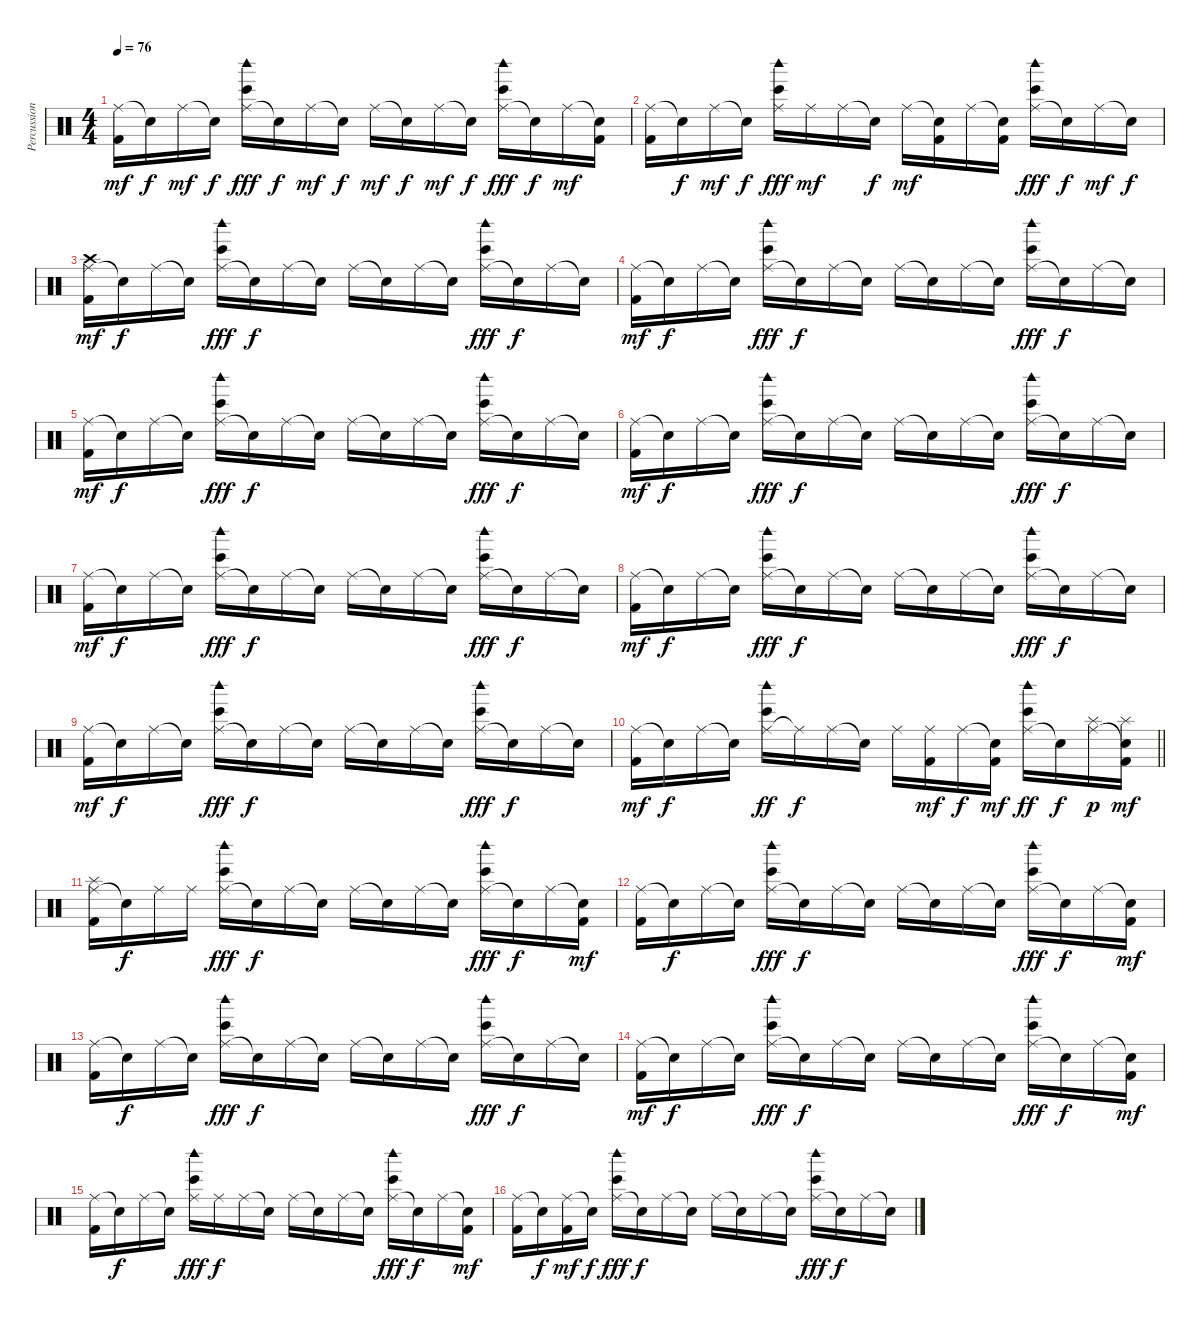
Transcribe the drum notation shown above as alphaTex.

\track ("Percussion" "Percussion") {instrument percussion}
\staff {score}
\articulation defaults
\ts (4 4)
\tempo 76
\clef neutral
\ks c
("Ride (middle)" "Kick (hit) 2").16{dy mf} "Snare (hit)"{t}.16{dy f} "Ride (middle)".16{dy mf} "Snare (hit)"{t}.16{dy f} ("Ride (middle)" "Woodblock high (hit)" "Bongo High (hit)").16{dy fff} "Snare (hit)"{t}.16{dy f} "Ride (middle)".16{dy mf} "Snare (hit)"{t}.16{dy f} "Ride (middle)".16{dy mf} "Snare (hit)"{t}.16{dy f} "Ride (middle)".16{dy mf} "Snare (hit)"{t}.16{dy f} ("Ride (middle)" "Woodblock high (hit)" "Bongo High (hit)").16{dy fff} "Snare (hit)"{t}.16{dy f} "Ride (middle)".16{dy mf} ("Snare (hit)"{t} "Kick (hit) 2").16 |
("Ride (middle)" "Kick (hit) 2").16 "Snare (hit)"{t}.16{dy f} "Ride (middle)".16{dy mf} "Snare (hit)"{t}.16{dy f} ("Ride (middle)" "Woodblock high (hit)" "Bongo High (hit)").16{dy fff} "Ride (middle)".16{dy mf} "Ride (middle)".16 "Snare (hit)"{t}.16{dy f} "Ride (middle)".16{dy mf} ("Snare (hit)"{t} "Kick (hit) 2").16 "Ride (middle)".16 ("Snare (hit)"{t} "Kick (hit) 2").16 ("Ride (middle)" "Woodblock high (hit)" "Bongo High (hit)").16{dy fff} "Snare (hit)"{t}.16{dy f} "Ride (middle)".16{dy mf} "Snare (hit)"{t}.16{dy f} |
("Ride (middle)" "Crash high (hit)" "Kick (hit) 2").16{dy mf} "Snare (hit)"{t}.16{dy f} "Ride (middle)".16 "Snare (hit)"{t}.16 ("Ride (middle)" "Woodblock high (hit)" "Bongo High (hit)").16{dy fff} "Snare (hit)"{t}.16{dy f} "Ride (middle)".16 "Snare (hit)"{t}.16 "Ride (middle)".16 "Snare (hit)"{t}.16 "Ride (middle)".16 "Snare (hit)"{t}.16 ("Ride (middle)" "Woodblock high (hit)" "Bongo High (hit)").16{dy fff} "Snare (hit)"{t}.16{dy f} "Ride (middle)".16 "Snare (hit)"{t}.16 |
("Ride (middle)" "Kick (hit) 2").16{dy mf} "Snare (hit)"{t}.16{dy f} "Ride (middle)".16 "Snare (hit)"{t}.16 ("Ride (middle)" "Woodblock high (hit)" "Bongo High (hit)").16{dy fff} "Snare (hit)"{t}.16{dy f} "Ride (middle)".16 "Snare (hit)"{t}.16 "Ride (middle)".16 "Snare (hit)"{t}.16 "Ride (middle)".16 "Snare (hit)"{t}.16 ("Ride (middle)" "Woodblock high (hit)" "Bongo High (hit)").16{dy fff} "Snare (hit)"{t}.16{dy f} "Ride (middle)".16 "Snare (hit)"{t}.16 |
("Ride (middle)" "Kick (hit) 2").16{dy mf} "Snare (hit)"{t}.16{dy f} "Ride (middle)".16 "Snare (hit)"{t}.16 ("Ride (middle)" "Woodblock high (hit)" "Bongo High (hit)").16{dy fff} "Snare (hit)"{t}.16{dy f} "Ride (middle)".16 "Snare (hit)"{t}.16 "Ride (middle)".16 "Snare (hit)"{t}.16 "Ride (middle)".16 "Snare (hit)"{t}.16 ("Ride (middle)" "Woodblock high (hit)" "Bongo High (hit)").16{dy fff} "Snare (hit)"{t}.16{dy f} "Ride (middle)".16 "Snare (hit)"{t}.16 |
("Ride (middle)" "Kick (hit) 2").16{dy mf} "Snare (hit)"{t}.16{dy f} "Ride (middle)".16 "Snare (hit)"{t}.16 ("Ride (middle)" "Woodblock high (hit)" "Bongo High (hit)").16{dy fff} "Snare (hit)"{t}.16{dy f} "Ride (middle)".16 "Snare (hit)"{t}.16 "Ride (middle)".16 "Snare (hit)"{t}.16 "Ride (middle)".16 "Snare (hit)"{t}.16 ("Ride (middle)" "Woodblock high (hit)" "Bongo High (hit)").16{dy fff} "Snare (hit)"{t}.16{dy f} "Ride (middle)".16 "Snare (hit)"{t}.16 |
("Ride (middle)" "Kick (hit) 2").16{dy mf} "Snare (hit)"{t}.16{dy f} "Ride (middle)".16 "Snare (hit)"{t}.16 ("Ride (middle)" "Woodblock high (hit)" "Bongo High (hit)").16{dy fff} "Snare (hit)"{t}.16{dy f} "Ride (middle)".16 "Snare (hit)"{t}.16 "Ride (middle)".16 "Snare (hit)"{t}.16 "Ride (middle)".16 "Snare (hit)"{t}.16 ("Ride (middle)" "Woodblock high (hit)" "Bongo High (hit)").16{dy fff} "Snare (hit)"{t}.16{dy f} "Ride (middle)".16 "Snare (hit)"{t}.16 |
("Ride (middle)" "Kick (hit) 2").16{dy mf} "Snare (hit)"{t}.16{dy f} "Ride (middle)".16 "Snare (hit)"{t}.16 ("Ride (middle)" "Woodblock high (hit)" "Bongo High (hit)").16{dy fff} "Snare (hit)"{t}.16{dy f} "Ride (middle)".16 "Snare (hit)"{t}.16 "Ride (middle)".16 "Snare (hit)"{t}.16 "Ride (middle)".16 "Snare (hit)"{t}.16 ("Ride (middle)" "Woodblock high (hit)" "Bongo High (hit)").16{dy fff} "Snare (hit)"{t}.16{dy f} "Ride (middle)".16 "Snare (hit)"{t}.16 |
("Ride (middle)" "Kick (hit) 2").16{dy mf} "Snare (hit)"{t}.16{dy f} "Ride (middle)".16 "Snare (hit)"{t}.16 ("Ride (middle)" "Woodblock high (hit)" "Bongo High (hit)").16{dy fff} "Snare (hit)"{t}.16{dy f} "Ride (middle)".16 "Snare (hit)"{t}.16 "Ride (middle)".16 "Snare (hit)"{t}.16 "Ride (middle)".16 "Snare (hit)"{t}.16 ("Ride (middle)" "Woodblock high (hit)" "Bongo High (hit)").16{dy fff} "Snare (hit)"{t}.16{dy f} "Ride (middle)".16 "Snare (hit)"{t}.16 |
\barLineRight lightlight
("Ride (middle)" "Kick (hit) 2").16{dy mf} "Snare (hit)"{t}.16{dy f} "Ride (middle)".16 "Snare (hit)"{t}.16 ("Ride (middle)" "Woodblock high (hit)" "Bongo High (hit)").16{dy ff} "Ride (middle)"{t}.16{dy f} "Ride (middle)".16 "Snare (hit)"{t}.16 "Ride (middle)".16 ("Ride (middle)" "Kick (hit) 2").16{dy mf} "Ride (middle)".16{dy f} ("Snare (hit)"{t} "Kick (hit) 2").16{dy mf} ("Ride (middle)" "Woodblock high (hit)" "Bongo High (hit)").16{dy ff} "Snare (hit)"{t}.16{dy f} ("Ride (middle)" "Splash (hit)").16{dy p} ("Snare (hit)"{t} "Splash (hit)" "Kick (hit) 2").16{dy mf} |
("Ride (middle)" "Splash (hit)" "Kick (hit) 2").16 "Snare (hit)"{t}.16{dy f} "Ride (middle)".16 "Ride (middle)".16 ("Ride (middle)" "Woodblock high (hit)" "Bongo High (hit)").16{dy fff} "Snare (hit)"{t}.16{dy f} "Ride (middle)".16 "Snare (hit)"{t}.16 "Ride (middle)".16 "Snare (hit)"{t}.16 "Ride (middle)".16 "Snare (hit)"{t}.16 ("Ride (middle)" "Woodblock high (hit)" "Bongo High (hit)").16{dy fff} "Snare (hit)"{t}.16{dy f} "Ride (middle)".16 ("Snare (hit)"{t} "Kick (hit) 2").16{dy mf} |
("Ride (middle)" "Kick (hit) 2").16 "Snare (hit)"{t}.16{dy f} "Ride (middle)".16 "Snare (hit)"{t}.16 ("Ride (middle)" "Woodblock high (hit)" "Bongo High (hit)").16{dy fff} "Snare (hit)"{t}.16{dy f} "Ride (middle)".16 "Snare (hit)"{t}.16 "Ride (middle)".16 "Snare (hit)"{t}.16 "Ride (middle)".16 "Snare (hit)"{t}.16 ("Ride (middle)" "Woodblock high (hit)" "Bongo High (hit)").16{dy fff} "Snare (hit)"{t}.16{dy f} "Ride (middle)".16 ("Snare (hit)"{t} "Kick (hit) 2").16{dy mf} |
("Ride (middle)" "Kick (hit) 2").16 "Snare (hit)"{t}.16{dy f} "Ride (middle)".16 "Snare (hit)"{t}.16 ("Ride (middle)" "Woodblock high (hit)" "Bongo High (hit)").16{dy fff} "Snare (hit)"{t}.16{dy f} "Ride (middle)".16 "Snare (hit)"{t}.16 "Ride (middle)".16 "Snare (hit)"{t}.16 "Ride (middle)".16 "Snare (hit)"{t}.16 ("Ride (middle)" "Woodblock high (hit)" "Bongo High (hit)").16{dy fff} "Snare (hit)"{t}.16{dy f} "Ride (middle)".16 "Snare (hit)"{t}.16 |
("Ride (middle)" "Kick (hit) 2").16{dy mf} "Snare (hit)"{t}.16{dy f} "Ride (middle)".16 "Snare (hit)"{t}.16 ("Ride (middle)" "Woodblock high (hit)" "Bongo High (hit)").16{dy fff} "Snare (hit)"{t}.16{dy f} "Ride (middle)".16 "Snare (hit)"{t}.16 "Ride (middle)".16 "Snare (hit)"{t}.16 "Ride (middle)".16 "Snare (hit)"{t}.16 ("Ride (middle)" "Woodblock high (hit)" "Bongo High (hit)").16{dy fff} "Snare (hit)"{t}.16{dy f} "Ride (middle)".16 ("Snare (hit)"{t} "Kick (hit) 2").16{dy mf} |
("Ride (middle)" "Kick (hit) 2").16 "Snare (hit)"{t}.16{dy f} "Ride (middle)".16 "Snare (hit)"{t}.16 ("Ride (middle)" "Woodblock high (hit)" "Bongo High (hit)").16{dy fff} "Ride (middle)".16{dy f} "Ride (middle)".16 "Snare (hit)"{t}.16 "Ride (middle)".16 "Snare (hit)"{t}.16 "Ride (middle)".16 "Snare (hit)"{t}.16 ("Ride (middle)" "Woodblock high (hit)" "Bongo High (hit)").16{dy fff} "Snare (hit)"{t}.16{dy f} "Ride (middle)".16 ("Snare (hit)"{t} "Kick (hit) 2").16{dy mf} |
("Ride (middle)" "Kick (hit) 2").16 "Snare (hit)"{t}.16{dy f} ("Ride (middle)" "Kick (hit) 2").16{dy mf} "Snare (hit)"{t}.16{dy f} ("Ride (middle)" "Woodblock high (hit)" "Bongo High (hit)").16{dy fff} "Snare (hit)"{t}.16{dy f} "Ride (middle)".16 "Snare (hit)"{t}.16 "Ride (middle)".16 "Snare (hit)"{t}.16 "Ride (middle)".16 "Snare (hit)"{t}.16 ("Ride (middle)" "Woodblock high (hit)" "Bongo High (hit)").16{dy fff} "Snare (hit)"{t}.16{dy f} "Ride (middle)".16 "Snare (hit)"{t}.16
